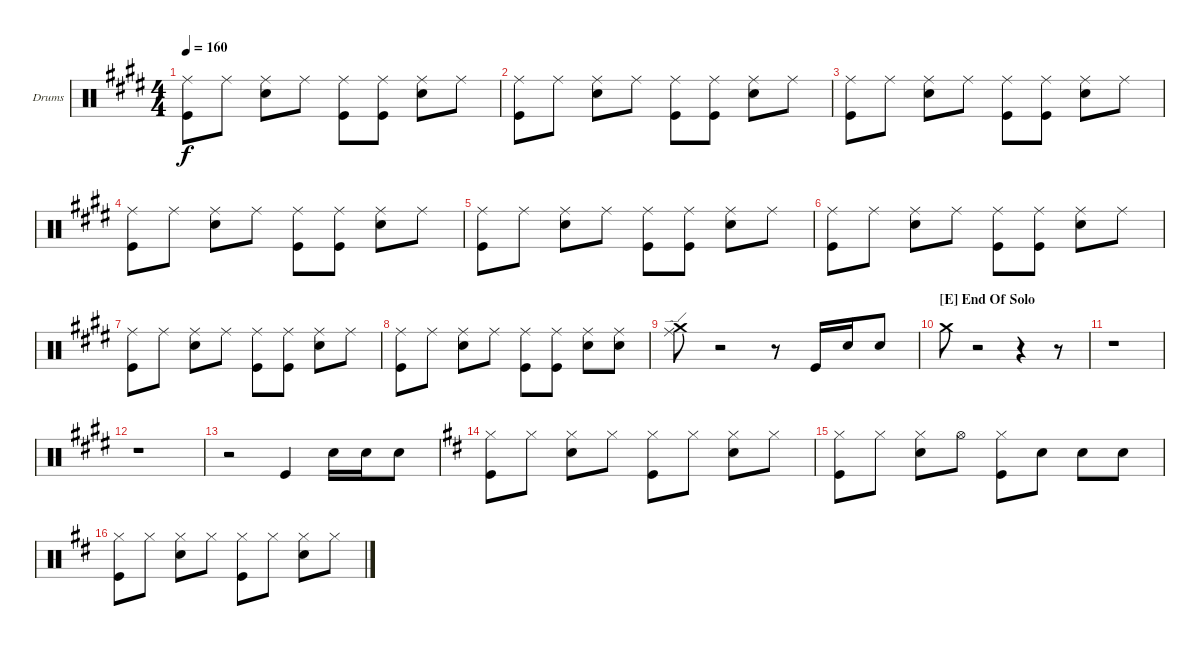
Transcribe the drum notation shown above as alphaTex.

\defaultSystemsLayout 4
\bracketExtendMode groupsimilarinstruments
\firstSystemTrackNameOrientation horizontal
\otherSystemsTrackNameOrientation horizontal
\track ("Drumkit" "Drums") {instrument percussion}
\staff {score}
\articulation defaults
\ts (4 4)
\tempo 160
\clef neutral
\scale
0.333333
\ks e
("Ride (middle)" "Kick (hit)").8{dy f} "Ride (middle)".8 ("Ride (middle)" "Snare (hit) 2").8 "Ride (middle)".8 ("Ride (middle)" "Kick (hit)").8 ("Ride (middle)" "Kick (hit)").8 ("Ride (middle)" "Snare (hit) 2").8 "Ride (middle)".8 |
\scale
0.333333 ("Ride (middle)" "Kick (hit)").8 "Ride (middle)".8 ("Ride (middle)" "Snare (hit) 2").8 "Ride (middle)".8 ("Ride (middle)" "Kick (hit)").8 ("Ride (middle)" "Kick (hit)").8 ("Ride (middle)" "Snare (hit) 2").8 "Ride (middle)".8 |
\scale
0.333333 ("Ride (middle)" "Kick (hit)").8 "Ride (middle)".8 ("Ride (middle)" "Snare (hit) 2").8 "Ride (middle)".8 ("Ride (middle)" "Kick (hit)").8 ("Ride (middle)" "Kick (hit)").8 ("Ride (middle)" "Snare (hit) 2").8 "Ride (middle)".8 |
\scale
0.333333 ("Ride (middle)" "Kick (hit)").8 "Ride (middle)".8 ("Ride (middle)" "Snare (hit) 2").8 "Ride (middle)".8 ("Ride (middle)" "Kick (hit)").8 ("Ride (middle)" "Kick (hit)").8 ("Ride (middle)" "Snare (hit) 2").8 "Ride (middle)".8 |
\scale
0.333333 ("Ride (middle)" "Kick (hit)").8 "Ride (middle)".8 ("Ride (middle)" "Snare (hit) 2").8 "Ride (middle)".8 ("Ride (middle)" "Kick (hit)").8 ("Ride (middle)" "Kick (hit)").8 ("Ride (middle)" "Snare (hit) 2").8 "Ride (middle)".8 |
\scale
0.333333 ("Ride (middle)" "Kick (hit)").8 "Ride (middle)".8 ("Ride (middle)" "Snare (hit) 2").8 "Ride (middle)".8 ("Ride (middle)" "Kick (hit)").8 ("Ride (middle)" "Kick (hit)").8 ("Ride (middle)" "Snare (hit) 2").8 "Ride (middle)".8 |
\scale
0.333333 ("Ride (middle)" "Kick (hit)").8 "Ride (middle)".8 ("Ride (middle)" "Snare (hit) 2").8 "Ride (middle)".8 ("Ride (middle)" "Kick (hit)").8 ("Ride (middle)" "Kick (hit)").8 ("Ride (middle)" "Snare (hit) 2").8 "Ride (middle)".8 |
\scale
0.333333 ("Ride (middle)" "Kick (hit)").8 "Ride (middle)".8 ("Ride (middle)" "Snare (hit) 2").8 "Ride (middle)".8 ("Ride (middle)" "Kick (hit)").8 ("Ride (middle)" "Kick (hit)").8 ("Ride (middle)" "Snare (hit) 2").8 ("Snare (hit) 2" "Ride (middle)").8 |
\scale
0.333333 ("Ride (edge)" "Crash medium (hit)").8 r.2 r.8 "Kick (hit)".16 "Snare (hit) 2".16 "Snare (hit) 2".8 |
\section ("E" "End Of Solo")
\scale
0.333333 "Crash medium (hit)".8 r.2 r.4 r.8 |
\scale
0.333333 r.1 |
\scale
0.256881 r.1 |
\scale
0.256881 r.2 "Kick (hit)".4 "Snare (hit) 2".16 "Snare (hit) 2".16 "Snare (hit) 2".8 |
\scale
0.486239
\ks d
("Hi-Hat (closed)" "Kick (hit)").8 "Hi-Hat (closed)".8 ("Hi-Hat (closed)" "Snare (hit) 2").8 "Hi-Hat (closed)".8 ("Hi-Hat (closed)" "Kick (hit)").8 "Hi-Hat (closed)".8 ("Hi-Hat (closed)" "Snare (hit) 2").8 "Hi-Hat (closed)".8 |
("Hi-Hat (closed)" "Kick (hit)").8 "Hi-Hat (closed)".8 ("Hi-Hat (closed)" "Snare (hit) 2").8 "Hi-Hat (open)".8 ("Hi-Hat (closed)" "Kick (hit)").8 "Snare (hit) 2".8 "Snare (hit) 2".8 "Snare (hit) 2".8 |
("Hi-Hat (closed)" "Kick (hit)").8 "Hi-Hat (closed)".8 ("Hi-Hat (closed)" "Snare (hit) 2").8 "Hi-Hat (closed)".8 ("Hi-Hat (closed)" "Kick (hit)").8 "Hi-Hat (closed)".8 ("Hi-Hat (closed)" "Snare (hit) 2").8 "Hi-Hat (closed)".8
